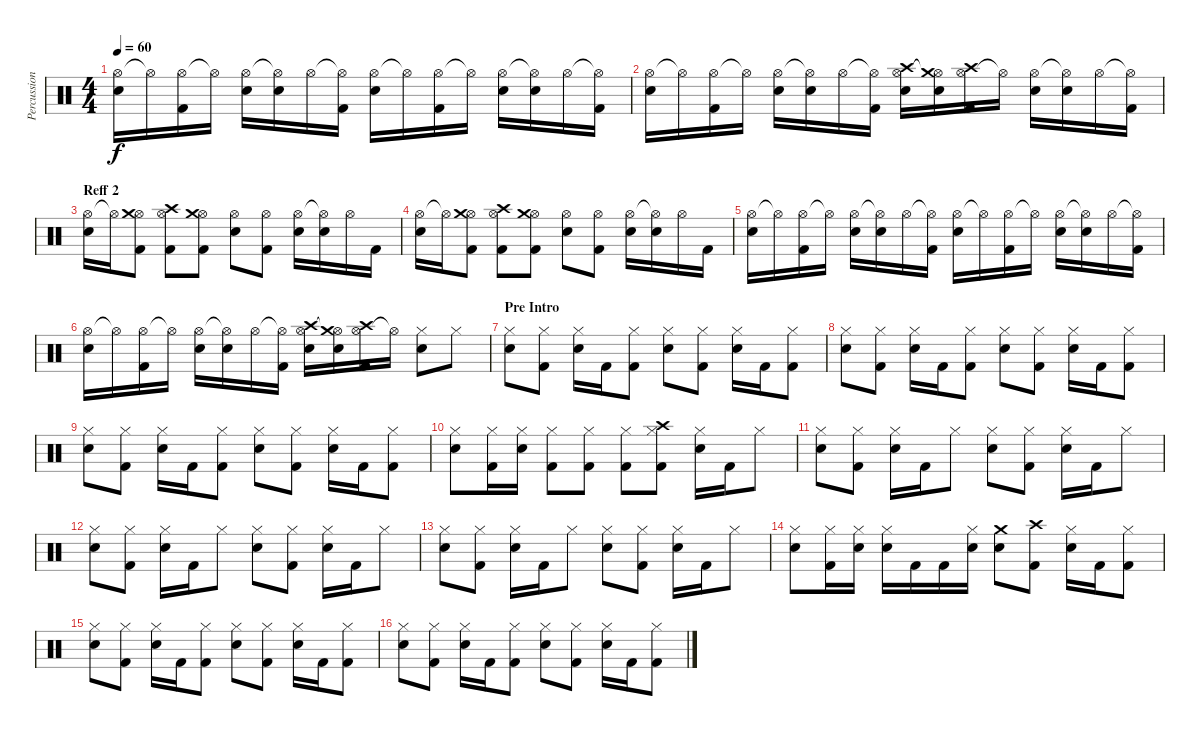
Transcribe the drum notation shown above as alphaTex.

\track ("Percussion 1" "Percussion") {instrument percussion}
\staff {score}
\articulation defaults
\ts (4 4)
\tempo 60
\clef neutral
\ks c
("Hi-Hat (open)" "Electric Snare (hit)").16{dy f} "Hi-Hat (open)"{t}.16 ("Hi-Hat (open)" "Kick (hit) 2").16 "Hi-Hat (open)"{t}.16 ("Hi-Hat (open)" "Electric Snare (hit)").16 ("Hi-Hat (open)"{t} "Electric Snare (hit)").16 "Hi-Hat (open)".16 ("Hi-Hat (open)"{t} "Kick (hit) 2").16 ("Hi-Hat (open)" "Electric Snare (hit)").16 "Hi-Hat (open)"{t}.16 ("Hi-Hat (open)" "Kick (hit) 2").16 "Hi-Hat (open)"{t}.16 ("Hi-Hat (open)" "Electric Snare (hit)").16 ("Hi-Hat (open)"{t} "Electric Snare (hit)").16 "Hi-Hat (open)".16 ("Hi-Hat (open)"{t} "Kick (hit) 2").16 |
("Hi-Hat (open)" "Electric Snare (hit)").16 "Hi-Hat (open)"{t}.16 ("Hi-Hat (open)" "Kick (hit) 2").16 "Hi-Hat (open)"{t}.16 ("Hi-Hat (open)" "Electric Snare (hit)").16 ("Hi-Hat (open)"{t} "Electric Snare (hit)").16 "Hi-Hat (open)".16 ("Hi-Hat (open)"{t} "Kick (hit) 2").16 ("Hi-Hat (open)" "Electric Snare (hit)" "Crash high (hit)").16 ("Hi-Hat (open)"{t} "Electric Snare (hit)" "Crash medium (hit)").16 ("Hi-Hat (open)" "Crash high (hit)" "Kick (hit) 2").16 "Hi-Hat (open)"{t}.16 ("Hi-Hat (open)" "Electric Snare (hit)").16 ("Hi-Hat (open)"{t} "Electric Snare (hit)").16 "Hi-Hat (open)".16 ("Hi-Hat (open)"{t} "Kick (hit) 2").16 |
\section ("" "Reff 2")
("Hi-Hat (open)" "Electric Snare (hit)").16 "Hi-Hat (open)"{t}.16 ("Hi-Hat (open)" "Crash medium (hit)" "Kick (hit) 2").8 ("Hi-Hat (open)" "Crash high (hit)" "Kick (hit) 2").8 ("Hi-Hat (open)" "Crash medium (hit)" "Kick (hit) 2").8 ("Hi-Hat (open)" "Electric Snare (hit)").8 ("Hi-Hat (open)" "Kick (hit) 2").8 ("Hi-Hat (open)" "Electric Snare (hit)").16 ("Hi-Hat (open)"{t} "Electric Snare (hit)").16 "Hi-Hat (open)".16 "Kick (hit) 2".16 |
("Hi-Hat (open)" "Electric Snare (hit)").16 "Hi-Hat (open)"{t}.16 ("Hi-Hat (open)" "Crash medium (hit)" "Kick (hit) 2").8 ("Hi-Hat (open)" "Crash high (hit)" "Kick (hit) 2").8 ("Hi-Hat (open)" "Crash medium (hit)" "Kick (hit) 2").8 ("Hi-Hat (open)" "Electric Snare (hit)").8 ("Hi-Hat (open)" "Kick (hit) 2").8 ("Hi-Hat (open)" "Electric Snare (hit)").16 ("Hi-Hat (open)"{t} "Electric Snare (hit)").16 "Hi-Hat (open)".16 "Kick (hit) 2".16 |
("Hi-Hat (open)" "Electric Snare (hit)").16 "Hi-Hat (open)"{t}.16 ("Hi-Hat (open)" "Kick (hit) 2").16 "Hi-Hat (open)"{t}.16 ("Hi-Hat (open)" "Electric Snare (hit)").16 ("Hi-Hat (open)"{t} "Electric Snare (hit)").16 "Hi-Hat (open)".16 ("Hi-Hat (open)"{t} "Kick (hit) 2").16 ("Hi-Hat (open)" "Electric Snare (hit)").16 "Hi-Hat (open)"{t}.16 ("Hi-Hat (open)" "Kick (hit) 2").16 "Hi-Hat (open)"{t}.16 ("Hi-Hat (open)" "Electric Snare (hit)").16 ("Hi-Hat (open)"{t} "Electric Snare (hit)").16 "Hi-Hat (open)".16 ("Hi-Hat (open)"{t} "Kick (hit) 2").16 |
("Hi-Hat (open)" "Electric Snare (hit)").16 "Hi-Hat (open)"{t}.16 ("Hi-Hat (open)" "Kick (hit) 2").16 "Hi-Hat (open)"{t}.16 ("Hi-Hat (open)" "Electric Snare (hit)").16 ("Hi-Hat (open)"{t} "Electric Snare (hit)").16 "Hi-Hat (open)".16 ("Hi-Hat (open)"{t} "Kick (hit) 2").16 ("Hi-Hat (open)" "Electric Snare (hit)" "Crash high (hit)").16 ("Hi-Hat (open)"{t} "Electric Snare (hit)" "Crash medium (hit)").16 ("Hi-Hat (open)" "Crash high (hit)" "Kick (hit) 2").16 "Hi-Hat (open)"{t}.16 ("Hi-Hat (closed)" "Electric Snare (hit)").8 "Hi-Hat (closed)".8 |
\section ("" "Pre Intro")
("Hi-Hat (closed)" "Electric Snare (hit)").8 ("Hi-Hat (closed)" "Kick (hit) 2").8 ("Hi-Hat (closed)" "Electric Snare (hit)").16 "Kick (hit) 2".16 ("Hi-Hat (closed)" "Kick (hit) 2").8 ("Hi-Hat (closed)" "Electric Snare (hit)").8 ("Hi-Hat (closed)" "Kick (hit) 2").8 ("Hi-Hat (closed)" "Electric Snare (hit)").16 "Kick (hit) 2".16 ("Hi-Hat (closed)" "Kick (hit) 2").8 |
("Hi-Hat (closed)" "Electric Snare (hit)").8 ("Hi-Hat (closed)" "Kick (hit) 2").8 ("Hi-Hat (closed)" "Electric Snare (hit)").16 "Kick (hit) 2".16 ("Hi-Hat (closed)" "Kick (hit) 2").8 ("Hi-Hat (closed)" "Electric Snare (hit)").8 ("Hi-Hat (closed)" "Kick (hit) 2").8 ("Hi-Hat (closed)" "Electric Snare (hit)").16 "Kick (hit) 2".16 ("Hi-Hat (closed)" "Kick (hit) 2").8 |
("Hi-Hat (closed)" "Electric Snare (hit)").8 ("Hi-Hat (closed)" "Kick (hit) 2").8 ("Hi-Hat (closed)" "Electric Snare (hit)").16 "Kick (hit) 2".16 ("Hi-Hat (closed)" "Kick (hit) 2").8 ("Hi-Hat (closed)" "Electric Snare (hit)").8 ("Hi-Hat (closed)" "Kick (hit) 2").8 ("Hi-Hat (closed)" "Electric Snare (hit)").16 "Kick (hit) 2".16 ("Hi-Hat (closed)" "Kick (hit) 2").8 |
("Hi-Hat (closed)" "Electric Snare (hit)").8 ("Hi-Hat (closed)" "Kick (hit) 2").16 ("Hi-Hat (closed)" "Electric Snare (hit)").16 ("Hi-Hat (closed)" "Kick (hit) 2").8 ("Hi-Hat (closed)" "Kick (hit) 2").8 ("Hi-Hat (closed)" "Kick (hit) 2").8 ("Hi-Hat (closed)" "Crash high (hit)" "Kick (hit) 2").8 ("Hi-Hat (closed)" "Electric Snare (hit)").16 "Kick (hit) 2".16 "Hi-Hat (closed)".8 |
("Hi-Hat (closed)" "Electric Snare (hit)").8 ("Hi-Hat (closed)" "Kick (hit) 2").8 ("Hi-Hat (closed)" "Electric Snare (hit)").16 "Kick (hit) 2".16 "Hi-Hat (closed)".8 ("Hi-Hat (closed)" "Electric Snare (hit)").8 ("Hi-Hat (closed)" "Kick (hit) 2").8 ("Hi-Hat (closed)" "Electric Snare (hit)").16 "Kick (hit) 2".16 "Hi-Hat (closed)".8 |
("Hi-Hat (closed)" "Electric Snare (hit)").8 ("Hi-Hat (closed)" "Kick (hit) 2").8 ("Hi-Hat (closed)" "Electric Snare (hit)").16 "Kick (hit) 2".16 "Hi-Hat (closed)".8 ("Hi-Hat (closed)" "Electric Snare (hit)").8 ("Hi-Hat (closed)" "Kick (hit) 2").8 ("Hi-Hat (closed)" "Electric Snare (hit)").16 "Kick (hit) 2".16 "Hi-Hat (closed)".8 |
("Hi-Hat (closed)" "Electric Snare (hit)").8 ("Hi-Hat (closed)" "Kick (hit) 2").8 ("Hi-Hat (closed)" "Electric Snare (hit)").16 "Kick (hit) 2".16 "Hi-Hat (closed)".8 ("Hi-Hat (closed)" "Electric Snare (hit)").8 ("Hi-Hat (closed)" "Kick (hit) 2").8 ("Hi-Hat (closed)" "Electric Snare (hit)").16 "Kick (hit) 2".16 "Hi-Hat (closed)".8 |
("Hi-Hat (closed)" "Electric Snare (hit)").8 ("Hi-Hat (closed)" "Kick (hit) 2").16 ("Hi-Hat (closed)" "Electric Snare (hit)").16 ("Hi-Hat (closed)" "Electric Snare (hit)").16 "Kick (hit) 2".16 "Kick (hit) 2".16 ("Hi-Hat (closed)" "Electric Snare (hit)").16 ("Electric Snare (hit)" "Crash medium (hit)").8 ("Crash high (hit)" "Kick (hit) 2").8 ("Hi-Hat (closed)" "Electric Snare (hit)").16 "Kick (hit) 2".16 ("Hi-Hat (closed)" "Kick (hit) 2").8 |
("Hi-Hat (closed)" "Electric Snare (hit)").8 ("Hi-Hat (closed)" "Kick (hit) 2").8 ("Hi-Hat (closed)" "Electric Snare (hit)").16 "Kick (hit) 2".16 ("Hi-Hat (closed)" "Kick (hit) 2").8 ("Hi-Hat (closed)" "Electric Snare (hit)").8 ("Hi-Hat (closed)" "Kick (hit) 2").8 ("Hi-Hat (closed)" "Electric Snare (hit)").16 "Kick (hit) 2".16 ("Hi-Hat (closed)" "Kick (hit) 2").8 |
("Hi-Hat (closed)" "Electric Snare (hit)").8 ("Hi-Hat (closed)" "Kick (hit) 2").8 ("Hi-Hat (closed)" "Electric Snare (hit)").16 "Kick (hit) 2".16 ("Hi-Hat (closed)" "Kick (hit) 2").8 ("Hi-Hat (closed)" "Electric Snare (hit)").8 ("Hi-Hat (closed)" "Kick (hit) 2").8 ("Hi-Hat (closed)" "Electric Snare (hit)").16 "Kick (hit) 2".16 ("Hi-Hat (closed)" "Kick (hit) 2").8
